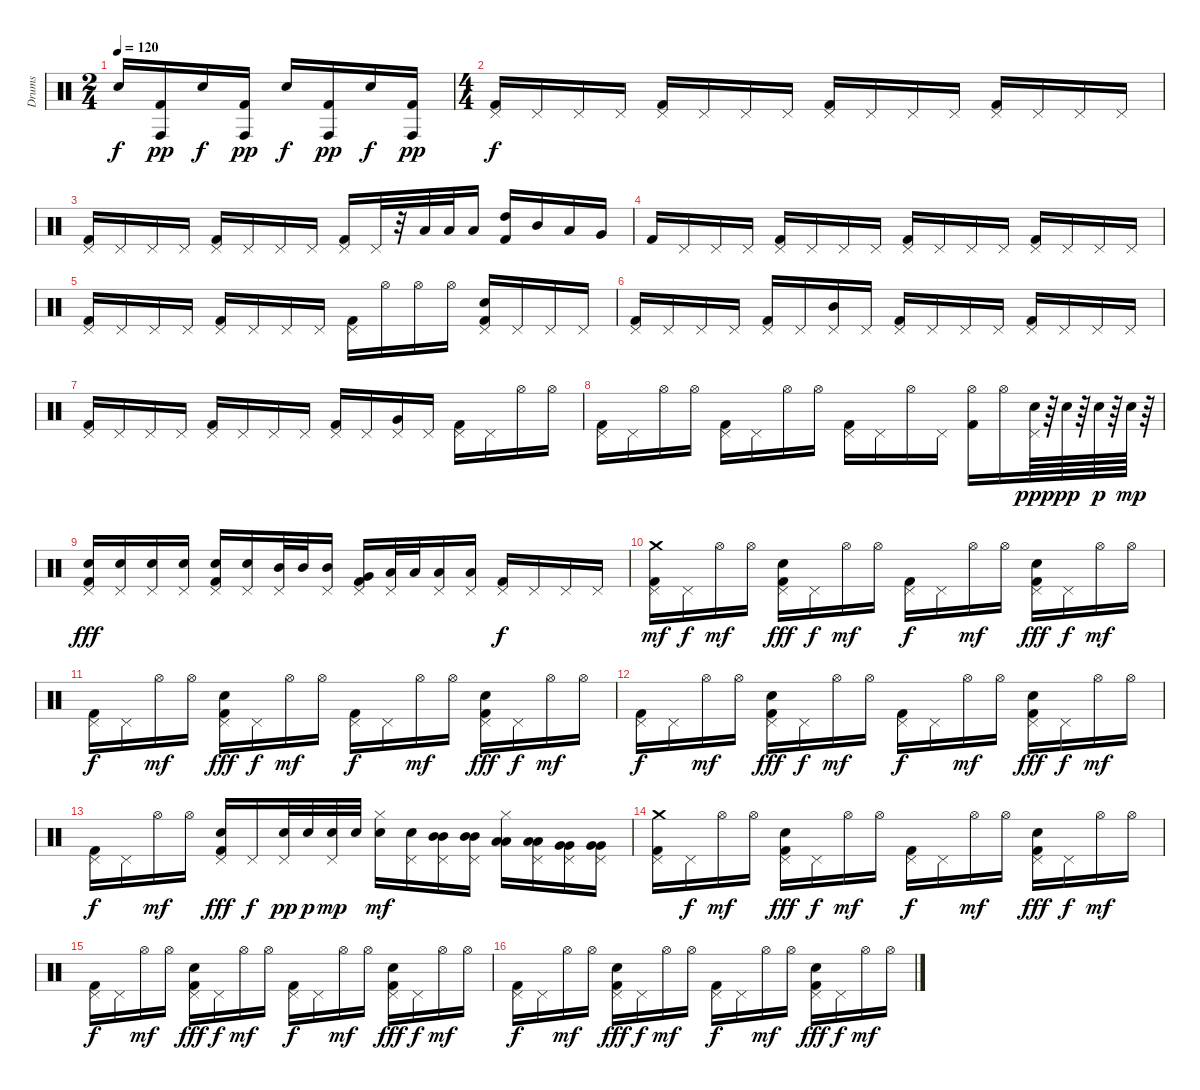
\track ("Drums" "Drums") {instrument percussion}
\staff {score}
\articulation defaults
\ts (2 4)
\tempo 120
\clef neutral
\ks c "Electric Snare (hit)".16{dy f balance 8}
("Conga high (hit)" "Kick (hit) 2").16{dy pp balance 16} "Electric Snare (hit)".16{dy f balance 8} ("Conga high (hit)" "Kick (hit) 2").16{dy pp balance 16} "Electric Snare (hit)".16{dy f balance 8} ("Conga high (hit)" "Kick (hit) 2").16{dy pp balance 16} "Electric Snare (hit)".16{dy f balance 8} ("Conga high (hit)" "Kick (hit) 2").16{dy pp balance 16} |
\ts (4 4)
("Pedal Hi-Hat (hit)" "Kick (hit) 2").16{dy f balance 8} "Pedal Hi-Hat (hit)".16 "Pedal Hi-Hat (hit)".16 "Pedal Hi-Hat (hit)".16 ("Pedal Hi-Hat (hit)" "Kick (hit) 2").16 "Pedal Hi-Hat (hit)".16 "Pedal Hi-Hat (hit)".16 "Pedal Hi-Hat (hit)".16 ("Pedal Hi-Hat (hit)" "Kick (hit) 2").16 "Pedal Hi-Hat (hit)".16 "Pedal Hi-Hat (hit)".16 "Pedal Hi-Hat (hit)".16 ("Pedal Hi-Hat (hit)" "Kick (hit) 2").16 "Pedal Hi-Hat (hit)".16 "Pedal Hi-Hat (hit)".16 "Pedal Hi-Hat (hit)".16 |
("Pedal Hi-Hat (hit)" "Kick (hit) 2").16 "Pedal Hi-Hat (hit)".16 "Pedal Hi-Hat (hit)".16 "Pedal Hi-Hat (hit)".16 ("Pedal Hi-Hat (hit)" "Kick (hit) 2").16 "Pedal Hi-Hat (hit)".16 "Pedal Hi-Hat (hit)".16 "Pedal Hi-Hat (hit)".16 ("Pedal Hi-Hat (hit)" "Kick (hit) 2").16 "Pedal Hi-Hat (hit)".32 r.32 "Low Tom (hit)".32 "Low Tom (hit)".32 "Low Tom (hit)".16 ("High Tom (hit)" "Kick (hit) 2").16 "Mid Tom (hit)".16 "Low Tom (hit)".16 "Very Low Tom (hit)".16 |
"Kick (hit) 2".16 "Pedal Hi-Hat (hit)".16 "Pedal Hi-Hat (hit)".16 "Pedal Hi-Hat (hit)".16 ("Pedal Hi-Hat (hit)" "Kick (hit) 2").16 "Pedal Hi-Hat (hit)".16 "Pedal Hi-Hat (hit)".16 "Pedal Hi-Hat (hit)".16 ("Pedal Hi-Hat (hit)" "Kick (hit) 2").16 "Pedal Hi-Hat (hit)".16 "Pedal Hi-Hat (hit)".16 "Pedal Hi-Hat (hit)".16 ("Pedal Hi-Hat (hit)" "Kick (hit) 2").16 "Pedal Hi-Hat (hit)".16 "Pedal Hi-Hat (hit)".16 "Pedal Hi-Hat (hit)".16 |
("Pedal Hi-Hat (hit)" "Kick (hit) 2").16 "Pedal Hi-Hat (hit)".16 "Pedal Hi-Hat (hit)".16 "Pedal Hi-Hat (hit)".16 ("Pedal Hi-Hat (hit)" "Kick (hit) 2").16 "Pedal Hi-Hat (hit)".16 "Pedal Hi-Hat (hit)".16 "Pedal Hi-Hat (hit)".16 ("Pedal Hi-Hat (hit)" "Kick (hit) 2").16 "Hi-Hat (open)".16 "Hi-Hat (open)".16 "Hi-Hat (open)".16 ("Pedal Hi-Hat (hit)" "Electric Snare (hit)" "Kick (hit) 2").16 "Pedal Hi-Hat (hit)".16 "Pedal Hi-Hat (hit)".16 "Pedal Hi-Hat (hit)".16 |
("Pedal Hi-Hat (hit)" "Kick (hit) 2").16 "Pedal Hi-Hat (hit)".16 "Pedal Hi-Hat (hit)".16 "Pedal Hi-Hat (hit)".16 ("Pedal Hi-Hat (hit)" "Kick (hit) 2").16 "Pedal Hi-Hat (hit)".16 ("Pedal Hi-Hat (hit)" "Mid Tom (hit)").16 "Pedal Hi-Hat (hit)".16 ("Pedal Hi-Hat (hit)" "Kick (hit) 2").16 "Pedal Hi-Hat (hit)".16 "Pedal Hi-Hat (hit)".16 "Pedal Hi-Hat (hit)".16 ("Pedal Hi-Hat (hit)" "Kick (hit) 2").16 "Pedal Hi-Hat (hit)".16 "Pedal Hi-Hat (hit)".16 "Pedal Hi-Hat (hit)".16 |
("Pedal Hi-Hat (hit)" "Kick (hit) 2").16 "Pedal Hi-Hat (hit)".16 "Pedal Hi-Hat (hit)".16 "Pedal Hi-Hat (hit)".16 ("Pedal Hi-Hat (hit)" "Kick (hit) 2").16 "Pedal Hi-Hat (hit)".16 "Pedal Hi-Hat (hit)".16 "Pedal Hi-Hat (hit)".16 ("Pedal Hi-Hat (hit)" "Kick (hit) 2").16 "Pedal Hi-Hat (hit)".16 ("Pedal Hi-Hat (hit)" "Very Low Tom (hit)").16 "Pedal Hi-Hat (hit)".16 ("Pedal Hi-Hat (hit)" "Kick (hit) 2").16 "Pedal Hi-Hat (hit)".16 "Hi-Hat (open)".16 "Hi-Hat (open)".16 |
("Pedal Hi-Hat (hit)" "Kick (hit) 2").16 "Pedal Hi-Hat (hit)".16 "Hi-Hat (open)".16 "Hi-Hat (open)".16 ("Pedal Hi-Hat (hit)" "Kick (hit) 2").16 "Pedal Hi-Hat (hit)".16 "Hi-Hat (open)".16 "Hi-Hat (open)".16 ("Pedal Hi-Hat (hit)" "Kick (hit) 2").16 "Pedal Hi-Hat (hit)".16 "Hi-Hat (open)".16 "Pedal Hi-Hat (hit)".16 ("Hi-Hat (open)" "Kick (hit) 2").16 "Hi-Hat (open)".16 ("Pedal Hi-Hat (hit)" "Electric Snare (hit)").64{dy ppp} r.64 "Electric Snare (hit)".64{dy pp} r.64 "Electric Snare (hit)".64{dy p} r.64 "Electric Snare (hit)".64{dy mp} r.64 |
("Pedal Hi-Hat (hit)" "Electric Snare (hit)" "Kick (hit) 2").16{dy fff} ("Pedal Hi-Hat (hit)" "Electric Snare (hit)").16 ("Pedal Hi-Hat (hit)" "Electric Snare (hit)").16 ("Pedal Hi-Hat (hit)" "Electric Snare (hit)").16 ("Pedal Hi-Hat (hit)" "Electric Snare (hit)" "Kick (hit) 2").16 ("Pedal Hi-Hat (hit)" "Electric Snare (hit)").16 ("Pedal Hi-Hat (hit)" "Mid Tom (hit)").32 "Mid Tom (hit)".32 ("Pedal Hi-Hat (hit)" "Mid Tom (hit)").16 ("Pedal Hi-Hat (hit)" "Very Low Tom (hit)" "Kick (hit) 2").16 ("Pedal Hi-Hat (hit)" "Low Tom (hit)").32 "Low Tom (hit)".32 ("Pedal Hi-Hat (hit)" "Low Tom (hit)").16 ("Pedal Hi-Hat (hit)" "Low Floor Tom (hit)").16 ("Pedal Hi-Hat (hit)" "Kick (hit) 2").16{dy f} "Pedal Hi-Hat (hit)".16 "Pedal Hi-Hat (hit)".16 "Pedal Hi-Hat (hit)".16 |
("Crash medium (hit)" "Pedal Hi-Hat (hit)" "Kick (hit) 2").16{dy mf} "Pedal Hi-Hat (hit)".16{dy f} "Hi-Hat (open)".16{dy mf} "Hi-Hat (open)".16 ("Pedal Hi-Hat (hit)" "Electric Snare (hit)" "Kick (hit) 2").16{dy fff} "Pedal Hi-Hat (hit)".16{dy f} "Hi-Hat (open)".16{dy mf} "Hi-Hat (open)".16 ("Pedal Hi-Hat (hit)" "Kick (hit) 2").16{dy f} "Pedal Hi-Hat (hit)".16 "Hi-Hat (open)".16{dy mf} "Hi-Hat (open)".16 ("Pedal Hi-Hat (hit)" "Electric Snare (hit)" "Kick (hit) 2").16{dy fff} "Pedal Hi-Hat (hit)".16{dy f} "Hi-Hat (open)".16{dy mf} "Hi-Hat (open)".16 |
("Pedal Hi-Hat (hit)" "Kick (hit) 2").16{dy f} "Pedal Hi-Hat (hit)".16 "Hi-Hat (open)".16{dy mf} "Hi-Hat (open)".16 ("Pedal Hi-Hat (hit)" "Electric Snare (hit)" "Kick (hit) 2").16{dy fff} "Pedal Hi-Hat (hit)".16{dy f} "Hi-Hat (open)".16{dy mf} "Hi-Hat (open)".16 ("Pedal Hi-Hat (hit)" "Kick (hit) 2").16{dy f} "Pedal Hi-Hat (hit)".16 "Hi-Hat (open)".16{dy mf} "Hi-Hat (open)".16 ("Pedal Hi-Hat (hit)" "Electric Snare (hit)" "Kick (hit) 2").16{dy fff} "Pedal Hi-Hat (hit)".16{dy f} "Hi-Hat (open)".16{dy mf} "Hi-Hat (open)".16 |
("Pedal Hi-Hat (hit)" "Kick (hit) 2").16{dy f} "Pedal Hi-Hat (hit)".16 "Hi-Hat (open)".16{dy mf} "Hi-Hat (open)".16 ("Pedal Hi-Hat (hit)" "Electric Snare (hit)" "Kick (hit) 2").16{dy fff} "Pedal Hi-Hat (hit)".16{dy f} "Hi-Hat (open)".16{dy mf} "Hi-Hat (open)".16 ("Pedal Hi-Hat (hit)" "Kick (hit) 2").16{dy f} "Pedal Hi-Hat (hit)".16 "Hi-Hat (open)".16{dy mf} "Hi-Hat (open)".16 ("Pedal Hi-Hat (hit)" "Electric Snare (hit)" "Kick (hit) 2").16{dy fff} "Pedal Hi-Hat (hit)".16{dy f} "Hi-Hat (open)".16{dy mf} "Hi-Hat (open)".16 |
("Pedal Hi-Hat (hit)" "Kick (hit) 2").16{dy f} "Pedal Hi-Hat (hit)".16 "Hi-Hat (open)".16{dy mf} "Hi-Hat (open)".16 ("Pedal Hi-Hat (hit)" "Electric Snare (hit)" "Kick (hit) 2").16{dy fff} "Pedal Hi-Hat (hit)".16{dy f} ("Pedal Hi-Hat (hit)" "Electric Snare (hit)").32{dy pp} "Electric Snare (hit)".32{dy p} ("Pedal Hi-Hat (hit)" "Electric Snare (hit)").32{dy mp} "Electric Snare (hit)".32 ("Hi-Hat (closed)" "Electric Snare (hit)").16{dy mf} ("Pedal Hi-Hat (hit)" "Electric Snare (hit)").16 ("Pedal Hi-Hat (hit)" "Mid Tom (hit)" "Mid Tom (hit)").16 ("Pedal Hi-Hat (hit)" "Mid Tom (hit)" "Mid Tom (hit)").16 ("Hi-Hat (closed)" "Low Tom (hit)" "Low Tom (hit)").16 ("Pedal Hi-Hat (hit)" "Low Tom (hit)" "Low Tom (hit)").16 ("Pedal Hi-Hat (hit)" "Very Low Tom (hit)" "Very Low Tom (hit)").16 ("Pedal Hi-Hat (hit)" "Very Low Tom (hit)" "Very Low Tom (hit)").16 |
("Crash medium (hit)" "Pedal Hi-Hat (hit)" "Kick (hit) 2").16 "Pedal Hi-Hat (hit)".16{dy f} "Hi-Hat (open)".16{dy mf} "Hi-Hat (open)".16 ("Pedal Hi-Hat (hit)" "Electric Snare (hit)" "Kick (hit) 2").16{dy fff} "Pedal Hi-Hat (hit)".16{dy f} "Hi-Hat (open)".16{dy mf} "Hi-Hat (open)".16 ("Pedal Hi-Hat (hit)" "Kick (hit) 2").16{dy f} "Pedal Hi-Hat (hit)".16 "Hi-Hat (open)".16{dy mf} "Hi-Hat (open)".16 ("Pedal Hi-Hat (hit)" "Electric Snare (hit)" "Kick (hit) 2").16{dy fff} "Pedal Hi-Hat (hit)".16{dy f} "Hi-Hat (open)".16{dy mf} "Hi-Hat (open)".16 |
("Pedal Hi-Hat (hit)" "Kick (hit) 2").16{dy f} "Pedal Hi-Hat (hit)".16 "Hi-Hat (open)".16{dy mf} "Hi-Hat (open)".16 ("Pedal Hi-Hat (hit)" "Electric Snare (hit)" "Kick (hit) 2").16{dy fff} "Pedal Hi-Hat (hit)".16{dy f} "Hi-Hat (open)".16{dy mf} "Hi-Hat (open)".16 ("Pedal Hi-Hat (hit)" "Kick (hit) 2").16{dy f} "Pedal Hi-Hat (hit)".16 "Hi-Hat (open)".16{dy mf} "Hi-Hat (open)".16 ("Pedal Hi-Hat (hit)" "Electric Snare (hit)" "Kick (hit) 2").16{dy fff} "Pedal Hi-Hat (hit)".16{dy f} "Hi-Hat (open)".16{dy mf} "Hi-Hat (open)".16 |
("Pedal Hi-Hat (hit)" "Kick (hit) 2").16{dy f} "Pedal Hi-Hat (hit)".16 "Hi-Hat (open)".16{dy mf} "Hi-Hat (open)".16 ("Pedal Hi-Hat (hit)" "Electric Snare (hit)" "Kick (hit) 2").16{dy fff} "Pedal Hi-Hat (hit)".16{dy f} "Hi-Hat (open)".16{dy mf} "Hi-Hat (open)".16 ("Pedal Hi-Hat (hit)" "Kick (hit) 2").16{dy f} "Pedal Hi-Hat (hit)".16 "Hi-Hat (open)".16{dy mf} "Hi-Hat (open)".16 ("Pedal Hi-Hat (hit)" "Electric Snare (hit)" "Kick (hit) 2").16{dy fff} "Pedal Hi-Hat (hit)".16{dy f} "Hi-Hat (open)".16{dy mf} "Hi-Hat (open)".16
